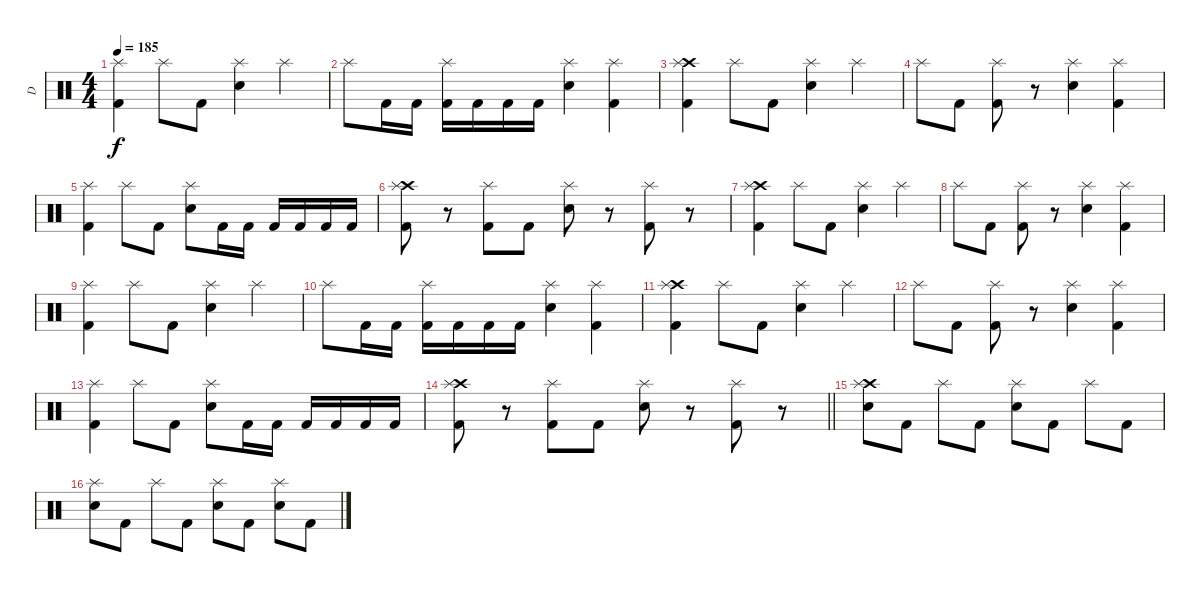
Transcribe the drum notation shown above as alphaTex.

\track ("D" "D") {instrument percussion}
\staff {score}
\articulation defaults
\ts (4 4)
\tempo 185
\clef neutral
\ks c
("Kick (hit) 2" "Splash (hit)").4{dy f} "Splash (hit)".8 "Kick (hit) 2".8 ("Electric Snare (hit)" "Splash (hit)").4 "Splash (hit)".4 |
"Splash (hit)".8 "Kick (hit) 2".16 "Kick (hit) 2".16 ("Kick (hit) 2" "Splash (hit)").16 "Kick (hit) 2".16 "Kick (hit) 2".16 "Kick (hit) 2".16 ("Electric Snare (hit)" "Splash (hit)").4 ("Kick (hit) 2" "Splash (hit)").4 |
("Crash high (hit)" "Kick (hit) 2" "Splash (hit)").4 "Splash (hit)".8 "Kick (hit) 2".8 ("Electric Snare (hit)" "Splash (hit)").4 "Splash (hit)".4 |
"Splash (hit)".8 "Kick (hit) 2".8 ("Kick (hit) 2" "Splash (hit)").8 r.8 ("Electric Snare (hit)" "Splash (hit)").4 ("Kick (hit) 2" "Splash (hit)").4 |
("Kick (hit) 2" "Splash (hit)").4 "Splash (hit)".8 "Kick (hit) 2".8 ("Electric Snare (hit)" "Splash (hit)").8 "Kick (hit) 2".16 "Kick (hit) 2".16 "Kick (hit) 2".16 "Kick (hit) 2".16 "Kick (hit) 2".16 "Kick (hit) 2".16 |
("Crash high (hit)" "Kick (hit) 2" "Splash (hit)").8 r.8 ("Kick (hit) 2" "Splash (hit)").8 "Kick (hit) 2".8 ("Electric Snare (hit)" "Splash (hit)").8 r.8 ("Kick (hit) 2" "Splash (hit)").8 r.8 |
("Crash high (hit)" "Kick (hit) 2" "Splash (hit)").4 "Splash (hit)".8 "Kick (hit) 2".8 ("Electric Snare (hit)" "Splash (hit)").4 "Splash (hit)".4 |
"Splash (hit)".8 "Kick (hit) 2".8 ("Kick (hit) 2" "Splash (hit)").8 r.8 ("Electric Snare (hit)" "Splash (hit)").4 ("Kick (hit) 2" "Splash (hit)").4 |
("Kick (hit) 2" "Splash (hit)").4 "Splash (hit)".8 "Kick (hit) 2".8 ("Electric Snare (hit)" "Splash (hit)").4 "Splash (hit)".4 |
"Splash (hit)".8 "Kick (hit) 2".16 "Kick (hit) 2".16 ("Kick (hit) 2" "Splash (hit)").16 "Kick (hit) 2".16 "Kick (hit) 2".16 "Kick (hit) 2".16 ("Electric Snare (hit)" "Splash (hit)").4 ("Kick (hit) 2" "Splash (hit)").4 |
("Crash high (hit)" "Kick (hit) 2" "Splash (hit)").4 "Splash (hit)".8 "Kick (hit) 2".8 ("Electric Snare (hit)" "Splash (hit)").4 "Splash (hit)".4 |
"Splash (hit)".8 "Kick (hit) 2".8 ("Kick (hit) 2" "Splash (hit)").8 r.8 ("Electric Snare (hit)" "Splash (hit)").4 ("Kick (hit) 2" "Splash (hit)").4 |
("Kick (hit) 2" "Splash (hit)").4 "Splash (hit)".8 "Kick (hit) 2".8 ("Electric Snare (hit)" "Splash (hit)").8 "Kick (hit) 2".16 "Kick (hit) 2".16 "Kick (hit) 2".16 "Kick (hit) 2".16 "Kick (hit) 2".16 "Kick (hit) 2".16 |
\barLineRight lightlight
("Crash high (hit)" "Kick (hit) 2" "Splash (hit)").8 r.8 ("Kick (hit) 2" "Splash (hit)").8 "Kick (hit) 2".8 ("Electric Snare (hit)" "Splash (hit)").8 r.8 ("Kick (hit) 2" "Splash (hit)").8 r.8 |
("Crash high (hit)" "Electric Snare (hit)" "Splash (hit)").8 "Kick (hit) 2".8 "Splash (hit)".8 "Kick (hit) 2".8 ("Electric Snare (hit)" "Splash (hit)").8 "Kick (hit) 2".8 "Splash (hit)".8 "Kick (hit) 2".8 |
("Electric Snare (hit)" "Splash (hit)").8 "Kick (hit) 2".8 "Splash (hit)".8 "Kick (hit) 2".8 ("Electric Snare (hit)" "Splash (hit)").8 "Kick (hit) 2".8 ("Electric Snare (hit)" "Splash (hit)").8 "Kick (hit) 2".8
